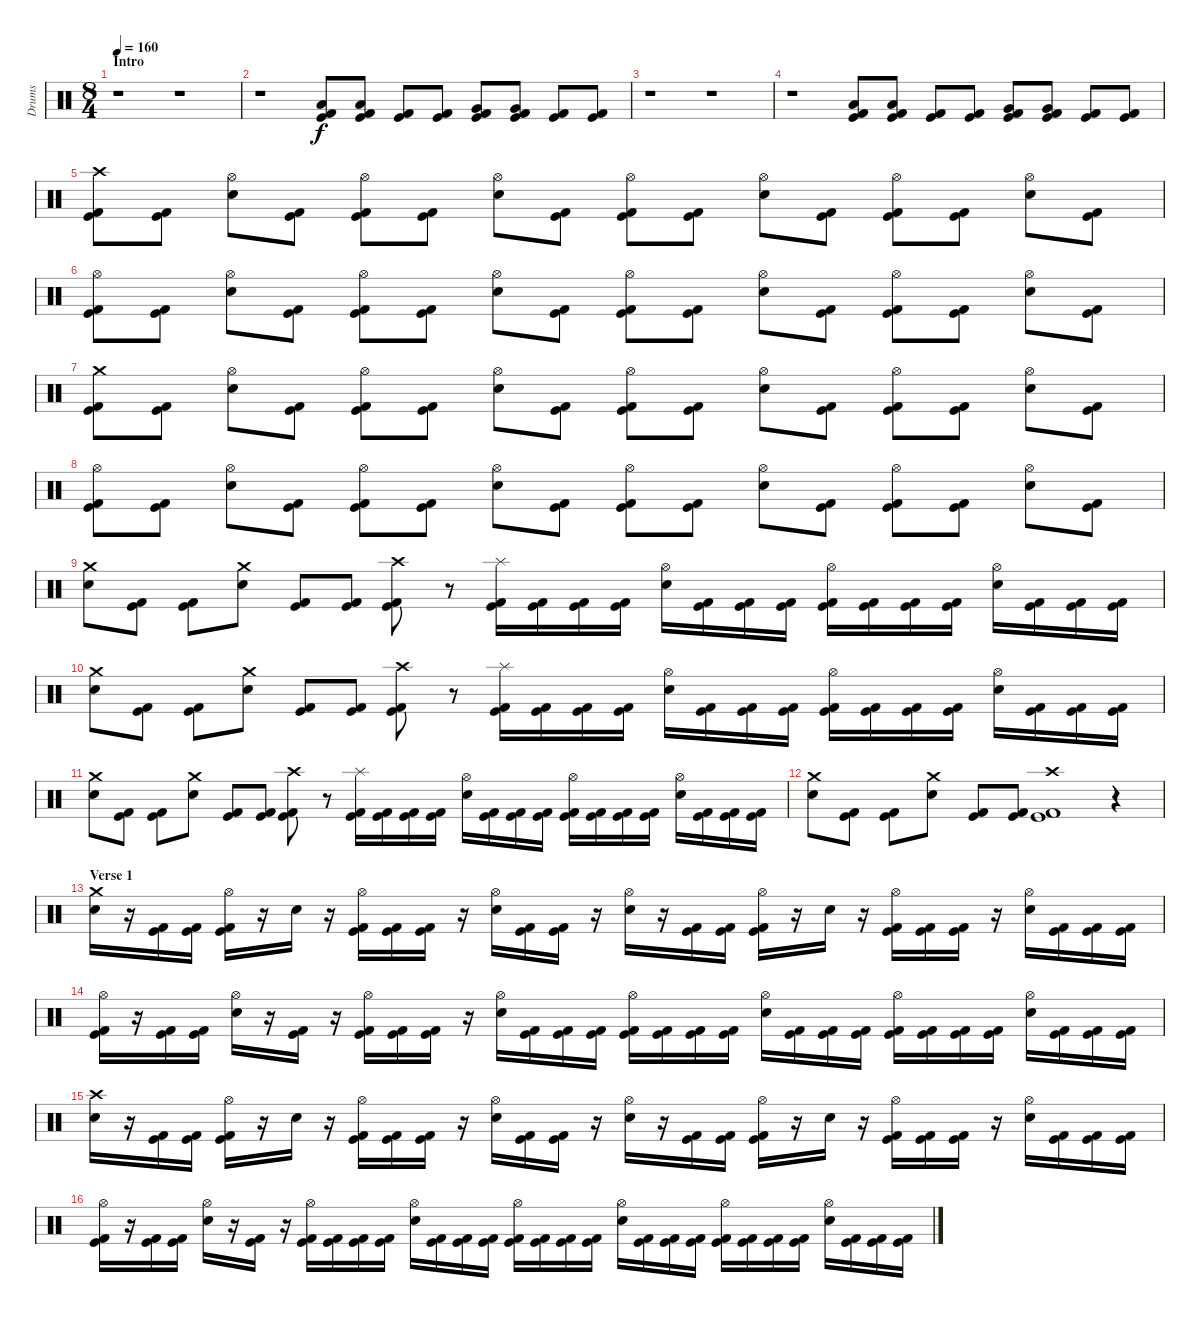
\track ("Drums" "Drums") {instrument percussion}
\staff {score}
\articulation defaults
\ts (8 4)
\section ("" "Intro")
\tempo 160
\clef neutral
\ks c
r.1{dy f} r.1 |
r.1 ("Low Tom (hit)" "Kick (hit)" "Kick (hit) 2").8 ("Low Tom (hit)" "Kick (hit)" "Kick (hit) 2").8 ("Kick (hit)" "Kick (hit) 2").8 ("Kick (hit)" "Kick (hit) 2").8 ("Very Low Tom (hit)" "Kick (hit)" "Kick (hit) 2").8 ("Very Low Tom (hit)" "Kick (hit)" "Kick (hit) 2").8 ("Kick (hit)" "Kick (hit) 2").8 ("Kick (hit)" "Kick (hit) 2").8 |
r.1 r.1 |
r.1 ("Low Tom (hit)" "Kick (hit)" "Kick (hit) 2").8 ("Low Tom (hit)" "Kick (hit)" "Kick (hit) 2").8 ("Kick (hit)" "Kick (hit) 2").8 ("Kick (hit)" "Kick (hit) 2").8 ("Very Low Tom (hit)" "Kick (hit)" "Kick (hit) 2").8 ("Very Low Tom (hit)" "Kick (hit)" "Kick (hit) 2").8 ("Kick (hit)" "Kick (hit) 2").8 ("Kick (hit)" "Kick (hit) 2").8 |
("Crash high (hit)" "Kick (hit)" "Kick (hit) 2").8 ("Kick (hit)" "Kick (hit) 2").8 ("Hi-Hat (open)" "Electric Snare (hit)").8 ("Kick (hit)" "Kick (hit) 2").8 ("Hi-Hat (open)" "Kick (hit)" "Kick (hit) 2").8 ("Kick (hit)" "Kick (hit) 2").8 ("Hi-Hat (open)" "Electric Snare (hit)").8 ("Kick (hit)" "Kick (hit) 2").8 ("Hi-Hat (open)" "Kick (hit)" "Kick (hit) 2").8 ("Kick (hit)" "Kick (hit) 2").8 ("Hi-Hat (open)" "Electric Snare (hit)").8 ("Kick (hit)" "Kick (hit) 2").8 ("Hi-Hat (open)" "Kick (hit)" "Kick (hit) 2").8 ("Kick (hit)" "Kick (hit) 2").8 ("Hi-Hat (open)" "Electric Snare (hit)").8 ("Kick (hit)" "Kick (hit) 2").8 |
("Hi-Hat (open)" "Kick (hit)" "Kick (hit) 2").8 ("Kick (hit)" "Kick (hit) 2").8 ("Hi-Hat (open)" "Electric Snare (hit)").8 ("Kick (hit)" "Kick (hit) 2").8 ("Hi-Hat (open)" "Kick (hit)" "Kick (hit) 2").8 ("Kick (hit)" "Kick (hit) 2").8 ("Hi-Hat (open)" "Electric Snare (hit)").8 ("Kick (hit)" "Kick (hit) 2").8 ("Hi-Hat (open)" "Kick (hit)" "Kick (hit) 2").8 ("Kick (hit)" "Kick (hit) 2").8 ("Hi-Hat (open)" "Electric Snare (hit)").8 ("Kick (hit)" "Kick (hit) 2").8 ("Hi-Hat (open)" "Kick (hit)" "Kick (hit) 2").8 ("Kick (hit)" "Kick (hit) 2").8 ("Hi-Hat (open)" "Electric Snare (hit)").8 ("Kick (hit)" "Kick (hit) 2").8 |
("Crash medium (hit)" "Kick (hit)" "Kick (hit) 2").8 ("Kick (hit)" "Kick (hit) 2").8 ("Hi-Hat (open)" "Electric Snare (hit)").8 ("Kick (hit)" "Kick (hit) 2").8 ("Hi-Hat (open)" "Kick (hit)" "Kick (hit) 2").8 ("Kick (hit)" "Kick (hit) 2").8 ("Hi-Hat (open)" "Electric Snare (hit)").8 ("Kick (hit)" "Kick (hit) 2").8 ("Hi-Hat (open)" "Kick (hit)" "Kick (hit) 2").8 ("Kick (hit)" "Kick (hit) 2").8 ("Hi-Hat (open)" "Electric Snare (hit)").8 ("Kick (hit)" "Kick (hit) 2").8 ("Hi-Hat (open)" "Kick (hit)" "Kick (hit) 2").8 ("Kick (hit)" "Kick (hit) 2").8 ("Hi-Hat (open)" "Electric Snare (hit)").8 ("Kick (hit)" "Kick (hit) 2").8 |
("Hi-Hat (open)" "Kick (hit)" "Kick (hit) 2").8 ("Kick (hit)" "Kick (hit) 2").8 ("Hi-Hat (open)" "Electric Snare (hit)").8 ("Kick (hit)" "Kick (hit) 2").8 ("Hi-Hat (open)" "Kick (hit)" "Kick (hit) 2").8 ("Kick (hit)" "Kick (hit) 2").8 ("Hi-Hat (open)" "Electric Snare (hit)").8 ("Kick (hit)" "Kick (hit) 2").8 ("Hi-Hat (open)" "Kick (hit)" "Kick (hit) 2").8 ("Kick (hit)" "Kick (hit) 2").8 ("Hi-Hat (open)" "Electric Snare (hit)").8 ("Kick (hit)" "Kick (hit) 2").8 ("Hi-Hat (open)" "Kick (hit)" "Kick (hit) 2").8 ("Kick (hit)" "Kick (hit) 2").8 ("Hi-Hat (open)" "Electric Snare (hit)").8 ("Kick (hit)" "Kick (hit) 2").8 |
("Crash medium (hit)" "Electric Snare (hit)").8 ("Kick (hit)" "Kick (hit) 2").8 ("Kick (hit)" "Kick (hit) 2").8 ("Crash medium (hit)" "Electric Snare (hit)").8 ("Kick (hit)" "Kick (hit) 2").8 ("Kick (hit)" "Kick (hit) 2").8 ("Crash high (hit)" "Kick (hit)" "Kick (hit) 2").8 r.8 ("Splash (hit)" "Kick (hit)" "Kick (hit) 2").16 ("Kick (hit)" "Kick (hit) 2").16 ("Kick (hit)" "Kick (hit) 2").16 ("Kick (hit)" "Kick (hit) 2").16 ("Hi-Hat (open)" "Electric Snare (hit)").16 ("Kick (hit)" "Kick (hit) 2").16 ("Kick (hit)" "Kick (hit) 2").16 ("Kick (hit)" "Kick (hit) 2").16 ("Hi-Hat (open)" "Kick (hit)" "Kick (hit) 2").16 ("Kick (hit)" "Kick (hit) 2").16 ("Kick (hit)" "Kick (hit) 2").16 ("Kick (hit)" "Kick (hit) 2").16 ("Hi-Hat (open)" "Electric Snare (hit)").16 ("Kick (hit)" "Kick (hit) 2").16 ("Kick (hit)" "Kick (hit) 2").16 ("Kick (hit)" "Kick (hit) 2").16 |
("Crash medium (hit)" "Electric Snare (hit)").8 ("Kick (hit)" "Kick (hit) 2").8 ("Kick (hit)" "Kick (hit) 2").8 ("Crash medium (hit)" "Electric Snare (hit)").8 ("Kick (hit)" "Kick (hit) 2").8 ("Kick (hit)" "Kick (hit) 2").8 ("Crash high (hit)" "Kick (hit)" "Kick (hit) 2").8 r.8 ("Splash (hit)" "Kick (hit)" "Kick (hit) 2").16 ("Kick (hit)" "Kick (hit) 2").16 ("Kick (hit)" "Kick (hit) 2").16 ("Kick (hit)" "Kick (hit) 2").16 ("Hi-Hat (open)" "Electric Snare (hit)").16 ("Kick (hit)" "Kick (hit) 2").16 ("Kick (hit)" "Kick (hit) 2").16 ("Kick (hit)" "Kick (hit) 2").16 ("Hi-Hat (open)" "Kick (hit)" "Kick (hit) 2").16 ("Kick (hit)" "Kick (hit) 2").16 ("Kick (hit)" "Kick (hit) 2").16 ("Kick (hit)" "Kick (hit) 2").16 ("Hi-Hat (open)" "Electric Snare (hit)").16 ("Kick (hit)" "Kick (hit) 2").16 ("Kick (hit)" "Kick (hit) 2").16 ("Kick (hit)" "Kick (hit) 2").16 |
("Crash medium (hit)" "Electric Snare (hit)").8 ("Kick (hit)" "Kick (hit) 2").8 ("Kick (hit)" "Kick (hit) 2").8 ("Crash medium (hit)" "Electric Snare (hit)").8 ("Kick (hit)" "Kick (hit) 2").8 ("Kick (hit)" "Kick (hit) 2").8 ("Crash high (hit)" "Kick (hit)" "Kick (hit) 2").8 r.8 ("Splash (hit)" "Kick (hit)" "Kick (hit) 2").16 ("Kick (hit)" "Kick (hit) 2").16 ("Kick (hit)" "Kick (hit) 2").16 ("Kick (hit)" "Kick (hit) 2").16 ("Hi-Hat (open)" "Electric Snare (hit)").16 ("Kick (hit)" "Kick (hit) 2").16 ("Kick (hit)" "Kick (hit) 2").16 ("Kick (hit)" "Kick (hit) 2").16 ("Hi-Hat (open)" "Kick (hit)" "Kick (hit) 2").16 ("Kick (hit)" "Kick (hit) 2").16 ("Kick (hit)" "Kick (hit) 2").16 ("Kick (hit)" "Kick (hit) 2").16 ("Hi-Hat (open)" "Electric Snare (hit)").16 ("Kick (hit)" "Kick (hit) 2").16 ("Kick (hit)" "Kick (hit) 2").16 ("Kick (hit)" "Kick (hit) 2").16 |
("Crash medium (hit)" "Electric Snare (hit)").8 ("Kick (hit)" "Kick (hit) 2").8 ("Kick (hit)" "Kick (hit) 2").8 ("Crash medium (hit)" "Electric Snare (hit)").8 ("Kick (hit)" "Kick (hit) 2").8 ("Kick (hit)" "Kick (hit) 2").8 ("Crash high (hit)" "Kick (hit)" "Kick (hit) 2").1 r.4 |
\section ("" "Verse 1")
("Crash medium (hit)" "Electric Snare (hit)").16 r.16 ("Kick (hit)" "Kick (hit) 2").16 ("Kick (hit)" "Kick (hit) 2").16 ("Hi-Hat (open)" "Kick (hit)" "Kick (hit) 2").16 r.16 "Electric Snare (hit)".16 r.16 ("Hi-Hat (open)" "Kick (hit)" "Kick (hit) 2").16 ("Kick (hit)" "Kick (hit) 2").16 ("Kick (hit)" "Kick (hit) 2").16 r.16 ("Hi-Hat (open)" "Electric Snare (hit)").16 ("Kick (hit)" "Kick (hit) 2").16 ("Kick (hit)" "Kick (hit) 2").16 r.16 ("Hi-Hat (open)" "Electric Snare (hit)").16 r.16 ("Kick (hit)" "Kick (hit) 2").16 ("Kick (hit)" "Kick (hit) 2").16 ("Hi-Hat (open)" "Kick (hit)" "Kick (hit) 2").16 r.16 "Electric Snare (hit)".16 r.16 ("Hi-Hat (open)" "Kick (hit)" "Kick (hit) 2").16 ("Kick (hit)" "Kick (hit) 2").16 ("Kick (hit)" "Kick (hit) 2").16 r.16 ("Hi-Hat (open)" "Electric Snare (hit)").16 ("Kick (hit)" "Kick (hit) 2").16 ("Kick (hit)" "Kick (hit) 2").16 ("Kick (hit)" "Kick (hit) 2").16 |
("Hi-Hat (open)" "Kick (hit)" "Kick (hit) 2").16 r.16 ("Kick (hit)" "Kick (hit) 2").16 ("Kick (hit)" "Kick (hit) 2").16 ("Hi-Hat (open)" "Electric Snare (hit)").16 r.16 ("Kick (hit)" "Kick (hit) 2").16 r.16 ("Hi-Hat (open)" "Kick (hit)" "Kick (hit) 2").16 ("Kick (hit)" "Kick (hit) 2").16 ("Kick (hit)" "Kick (hit) 2").16 r.16 ("Hi-Hat (open)" "Electric Snare (hit)").16 ("Kick (hit)" "Kick (hit) 2").16 ("Kick (hit)" "Kick (hit) 2").16 ("Kick (hit)" "Kick (hit) 2").16 ("Hi-Hat (open)" "Kick (hit)" "Kick (hit) 2").16 ("Kick (hit)" "Kick (hit) 2").16 ("Kick (hit)" "Kick (hit) 2").16 ("Kick (hit)" "Kick (hit) 2").16 ("Hi-Hat (open)" "Electric Snare (hit)").16 ("Kick (hit)" "Kick (hit) 2").16 ("Kick (hit)" "Kick (hit) 2").16 ("Kick (hit)" "Kick (hit) 2").16 ("Hi-Hat (open)" "Kick (hit)" "Kick (hit) 2").16 ("Kick (hit)" "Kick (hit) 2").16 ("Kick (hit)" "Kick (hit) 2").16 ("Kick (hit)" "Kick (hit) 2").16 ("Hi-Hat (open)" "Electric Snare (hit)").16 ("Kick (hit)" "Kick (hit) 2").16 ("Kick (hit)" "Kick (hit) 2").16 ("Kick (hit)" "Kick (hit) 2").16 |
("Crash high (hit)" "Electric Snare (hit)").16 r.16 ("Kick (hit)" "Kick (hit) 2").16 ("Kick (hit)" "Kick (hit) 2").16 ("Hi-Hat (open)" "Kick (hit)" "Kick (hit) 2").16 r.16 "Electric Snare (hit)".16 r.16 ("Hi-Hat (open)" "Kick (hit)" "Kick (hit) 2").16 ("Kick (hit)" "Kick (hit) 2").16 ("Kick (hit)" "Kick (hit) 2").16 r.16 ("Hi-Hat (open)" "Electric Snare (hit)").16 ("Kick (hit)" "Kick (hit) 2").16 ("Kick (hit)" "Kick (hit) 2").16 r.16 ("Hi-Hat (open)" "Electric Snare (hit)").16 r.16 ("Kick (hit)" "Kick (hit) 2").16 ("Kick (hit)" "Kick (hit) 2").16 ("Hi-Hat (open)" "Kick (hit)" "Kick (hit) 2").16 r.16 "Electric Snare (hit)".16 r.16 ("Hi-Hat (open)" "Kick (hit)" "Kick (hit) 2").16 ("Kick (hit)" "Kick (hit) 2").16 ("Kick (hit)" "Kick (hit) 2").16 r.16 ("Hi-Hat (open)" "Electric Snare (hit)").16 ("Kick (hit)" "Kick (hit) 2").16 ("Kick (hit)" "Kick (hit) 2").16 ("Kick (hit)" "Kick (hit) 2").16 |
("Hi-Hat (open)" "Kick (hit)" "Kick (hit) 2").16 r.16 ("Kick (hit)" "Kick (hit) 2").16 ("Kick (hit)" "Kick (hit) 2").16 ("Hi-Hat (open)" "Electric Snare (hit)").16 r.16 ("Kick (hit)" "Kick (hit) 2").16 r.16 ("Hi-Hat (open)" "Kick (hit)" "Kick (hit) 2").16 ("Kick (hit)" "Kick (hit) 2").16 ("Kick (hit)" "Kick (hit) 2").16 ("Kick (hit) 2" "Kick (hit)").16 ("Hi-Hat (open)" "Electric Snare (hit)").16 ("Kick (hit)" "Kick (hit) 2").16 ("Kick (hit)" "Kick (hit) 2").16 ("Kick (hit)" "Kick (hit) 2").16 ("Hi-Hat (open)" "Kick (hit)" "Kick (hit) 2").16 ("Kick (hit)" "Kick (hit) 2").16 ("Kick (hit)" "Kick (hit) 2").16 ("Kick (hit)" "Kick (hit) 2").16 ("Hi-Hat (open)" "Electric Snare (hit)").16 ("Kick (hit)" "Kick (hit) 2").16 ("Kick (hit)" "Kick (hit) 2").16 ("Kick (hit)" "Kick (hit) 2").16 ("Hi-Hat (open)" "Kick (hit)" "Kick (hit) 2").16 ("Kick (hit)" "Kick (hit) 2").16 ("Kick (hit)" "Kick (hit) 2").16 ("Kick (hit)" "Kick (hit) 2").16 ("Hi-Hat (open)" "Electric Snare (hit)").16 ("Kick (hit)" "Kick (hit) 2").16 ("Kick (hit)" "Kick (hit) 2").16 ("Kick (hit)" "Kick (hit) 2").16
